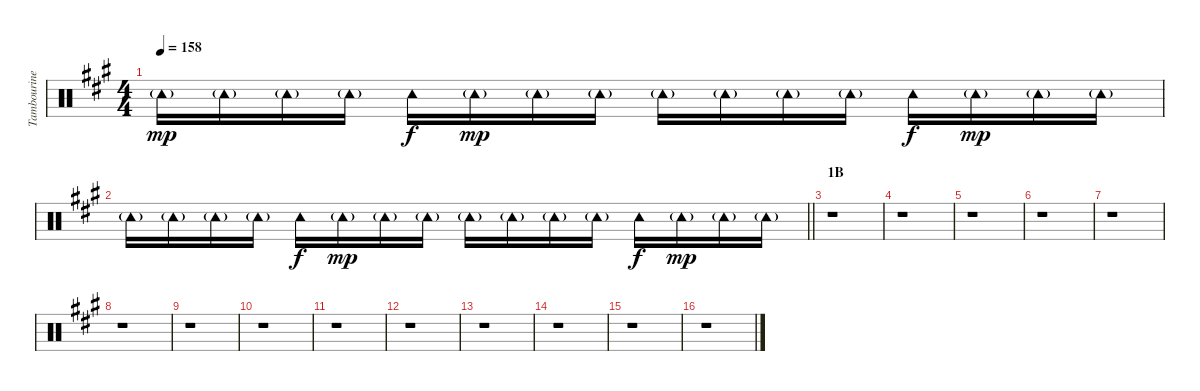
\track ("Tambourine" "Tambourine") {instrument percussion}
\staff {score}
\articulation defaults
\ts (4 4)
\tempo 158
\clef neutral
\ks a "Tambourine (hit)"{g}.16{dy mp} "Tambourine (hit)"{g}.16 "Tambourine (hit)"{g}.16 "Tambourine (hit)"{g}.16 "Tambourine (hit)".16{dy f} "Tambourine (hit)"{g}.16{dy mp} "Tambourine (hit)"{g}.16 "Tambourine (hit)"{g}.16 "Tambourine (hit)"{g}.16 "Tambourine (hit)"{g}.16 "Tambourine (hit)"{g}.16 "Tambourine (hit)"{g}.16 "Tambourine (hit)".16{dy f} "Tambourine (hit)"{g}.16{dy mp} "Tambourine (hit)"{g}.16 "Tambourine (hit)"{g}.16
|
\barLineRight lightlight "Tambourine (hit)"{g}.16 "Tambourine (hit)"{g}.16 "Tambourine (hit)"{g}.16 "Tambourine (hit)"{g}.16 "Tambourine (hit)".16{dy f} "Tambourine (hit)"{g}.16{dy mp} "Tambourine (hit)"{g}.16 "Tambourine (hit)"{g}.16 "Tambourine (hit)"{g}.16 "Tambourine (hit)"{g}.16 "Tambourine (hit)"{g}.16 "Tambourine (hit)"{g}.16 "Tambourine (hit)".16{dy f} "Tambourine (hit)"{g}.16{dy mp} "Tambourine (hit)"{g}.16 "Tambourine (hit)"{g}.16
|
\section ("" "1B")
r.1 |
r.1 |
r.1 |
r.1 |
r.1 |
r.1 |
r.1 |
r.1 |
r.1 |
r.1 |
r.1 |
r.1 |
r.1 |
r.1
